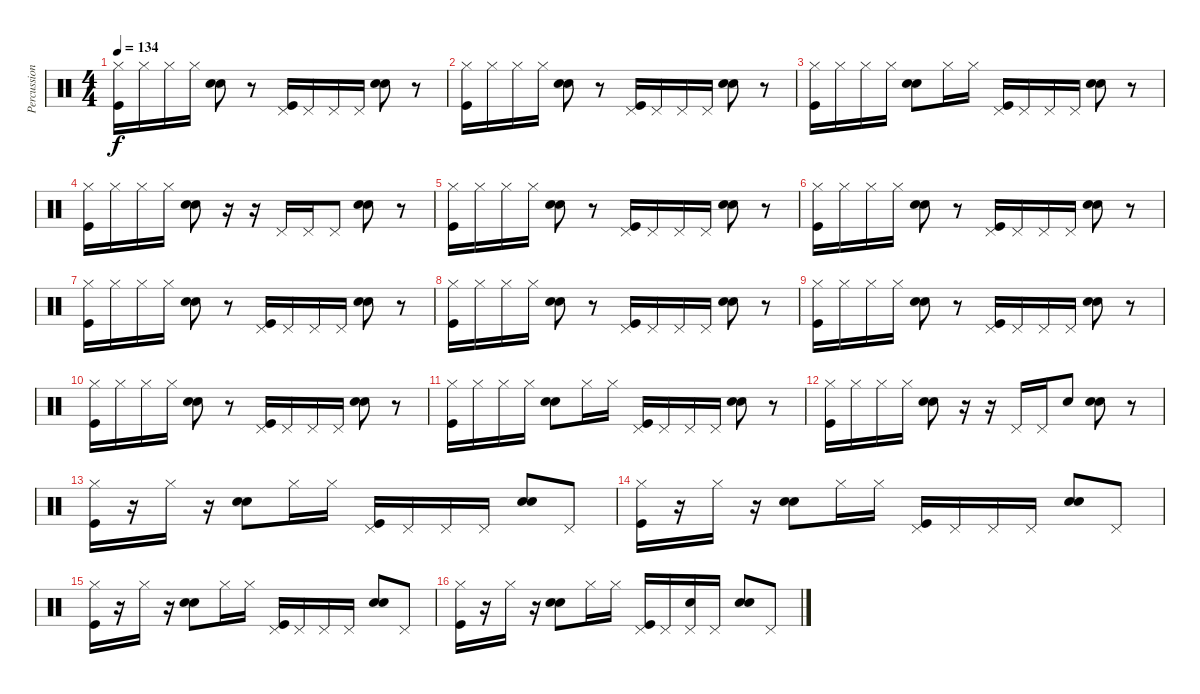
\track ("Percussion" "Percussion") {instrument percussion}
\staff {score}
\articulation defaults
\ts (4 4)
\tempo 134
\clef neutral
\ks c
("Hi-Hat (closed)" "Kick (hit)").16{dy f} "Hi-Hat (closed)".16 "Hi-Hat (closed)".16 "Hi-Hat (closed)".16 ("Hand Clap (hit)" "Electric Snare (hit)").8 r.8 ("Pedal Hi-Hat (hit)" "Kick (hit)").16 "Pedal Hi-Hat (hit)".16 "Pedal Hi-Hat (hit)".16 "Pedal Hi-Hat (hit)".16 ("Hand Clap (hit)" "Electric Snare (hit)").8 r.8 |
("Hi-Hat (closed)" "Kick (hit)").16 "Hi-Hat (closed)".16 "Hi-Hat (closed)".16 "Hi-Hat (closed)".16 ("Hand Clap (hit)" "Electric Snare (hit)").8 r.8 ("Pedal Hi-Hat (hit)" "Kick (hit)").16 "Pedal Hi-Hat (hit)".16 "Pedal Hi-Hat (hit)".16 "Pedal Hi-Hat (hit)".16 ("Hand Clap (hit)" "Electric Snare (hit)").8 r.8 |
("Hi-Hat (closed)" "Kick (hit)").16 "Hi-Hat (closed)".16 "Hi-Hat (closed)".16 "Hi-Hat (closed)".16 ("Hand Clap (hit)" "Electric Snare (hit)").8 "Hi-Hat (closed)".16 "Hi-Hat (closed)".16 ("Pedal Hi-Hat (hit)" "Kick (hit)").16 "Pedal Hi-Hat (hit)".16 "Pedal Hi-Hat (hit)".16 "Pedal Hi-Hat (hit)".16 ("Hand Clap (hit)" "Electric Snare (hit)").8 r.8 |
("Hi-Hat (closed)" "Kick (hit)").16 "Hi-Hat (closed)".16 "Hi-Hat (closed)".16 "Hi-Hat (closed)".16 ("Hand Clap (hit)" "Electric Snare (hit)").8 r.16 r.16 "Pedal Hi-Hat (hit)".16 "Pedal Hi-Hat (hit)".16 "Pedal Hi-Hat (hit)".8 ("Hand Clap (hit)" "Electric Snare (hit)").8 r.8 |
("Hi-Hat (closed)" "Kick (hit)").16 "Hi-Hat (closed)".16 "Hi-Hat (closed)".16 "Hi-Hat (closed)".16 ("Hand Clap (hit)" "Electric Snare (hit)").8 r.8 ("Pedal Hi-Hat (hit)" "Kick (hit)").16 "Pedal Hi-Hat (hit)".16 "Pedal Hi-Hat (hit)".16 "Pedal Hi-Hat (hit)".16 ("Hand Clap (hit)" "Electric Snare (hit)").8 r.8 |
("Hi-Hat (closed)" "Kick (hit)").16 "Hi-Hat (closed)".16 "Hi-Hat (closed)".16 "Hi-Hat (closed)".16 ("Hand Clap (hit)" "Electric Snare (hit)").8 r.8 ("Pedal Hi-Hat (hit)" "Kick (hit)").16 "Pedal Hi-Hat (hit)".16 "Pedal Hi-Hat (hit)".16 "Pedal Hi-Hat (hit)".16 ("Hand Clap (hit)" "Electric Snare (hit)").8 r.8 |
("Hi-Hat (closed)" "Kick (hit)").16 "Hi-Hat (closed)".16 "Hi-Hat (closed)".16 "Hi-Hat (closed)".16 ("Hand Clap (hit)" "Electric Snare (hit)").8 r.8 ("Pedal Hi-Hat (hit)" "Kick (hit)").16 "Pedal Hi-Hat (hit)".16 "Pedal Hi-Hat (hit)".16 "Pedal Hi-Hat (hit)".16 ("Hand Clap (hit)" "Electric Snare (hit)").8 r.8 |
("Hi-Hat (closed)" "Kick (hit)").16 "Hi-Hat (closed)".16 "Hi-Hat (closed)".16 "Hi-Hat (closed)".16 ("Hand Clap (hit)" "Electric Snare (hit)").8 r.8 ("Pedal Hi-Hat (hit)" "Kick (hit)").16 "Pedal Hi-Hat (hit)".16 "Pedal Hi-Hat (hit)".16 "Pedal Hi-Hat (hit)".16 ("Hand Clap (hit)" "Electric Snare (hit)").8 r.8 |
("Hi-Hat (closed)" "Kick (hit)").16 "Hi-Hat (closed)".16 "Hi-Hat (closed)".16 "Hi-Hat (closed)".16 ("Hand Clap (hit)" "Electric Snare (hit)").8 r.8 ("Pedal Hi-Hat (hit)" "Kick (hit)").16 "Pedal Hi-Hat (hit)".16 "Pedal Hi-Hat (hit)".16 "Pedal Hi-Hat (hit)".16 ("Hand Clap (hit)" "Electric Snare (hit)").8 r.8 |
("Hi-Hat (closed)" "Kick (hit)").16 "Hi-Hat (closed)".16 "Hi-Hat (closed)".16 "Hi-Hat (closed)".16 ("Hand Clap (hit)" "Electric Snare (hit)").8 r.8 ("Pedal Hi-Hat (hit)" "Kick (hit)").16 "Pedal Hi-Hat (hit)".16 "Pedal Hi-Hat (hit)".16 "Pedal Hi-Hat (hit)".16 ("Hand Clap (hit)" "Electric Snare (hit)").8 r.8 |
("Hi-Hat (closed)" "Kick (hit)").16 "Hi-Hat (closed)".16 "Hi-Hat (closed)".16 "Hi-Hat (closed)".16 ("Hand Clap (hit)" "Electric Snare (hit)").8 "Hi-Hat (closed)".16 "Hi-Hat (closed)".16 ("Pedal Hi-Hat (hit)" "Kick (hit)").16 "Pedal Hi-Hat (hit)".16 "Pedal Hi-Hat (hit)".16 "Pedal Hi-Hat (hit)".16 ("Hand Clap (hit)" "Electric Snare (hit)").8 r.8 |
("Hi-Hat (closed)" "Kick (hit)").16 "Hi-Hat (closed)".16 "Hi-Hat (closed)".16 "Hi-Hat (closed)".16 ("Hand Clap (hit)" "Electric Snare (hit)").8 r.16 r.16 "Pedal Hi-Hat (hit)".16 "Pedal Hi-Hat (hit)".16 "Hand Clap (hit)".8 ("Hand Clap (hit)" "Electric Snare (hit)").8 r.8 |
("Hi-Hat (closed)" "Kick (hit)").16 r.16 "Hi-Hat (closed)".16 r.16 ("Hand Clap (hit)" "Electric Snare (hit)").8 "Hi-Hat (closed)".16 "Hi-Hat (closed)".16 ("Pedal Hi-Hat (hit)" "Kick (hit)").16 "Pedal Hi-Hat (hit)".16 "Pedal Hi-Hat (hit)".16 "Pedal Hi-Hat (hit)".16 ("Hand Clap (hit)" "Electric Snare (hit)").8 "Pedal Hi-Hat (hit)".8 |
("Hi-Hat (closed)" "Kick (hit)").16 r.16 "Hi-Hat (closed)".16 r.16 ("Hand Clap (hit)" "Electric Snare (hit)").8 "Hi-Hat (closed)".16 "Hi-Hat (closed)".16 ("Pedal Hi-Hat (hit)" "Kick (hit)").16 "Pedal Hi-Hat (hit)".16 "Pedal Hi-Hat (hit)".16 "Pedal Hi-Hat (hit)".16 ("Hand Clap (hit)" "Electric Snare (hit)").8 "Pedal Hi-Hat (hit)".8 |
("Hi-Hat (closed)" "Kick (hit)").16 r.16 "Hi-Hat (closed)".16 r.16 ("Hand Clap (hit)" "Electric Snare (hit)").8 "Hi-Hat (closed)".16 "Hi-Hat (closed)".16 ("Pedal Hi-Hat (hit)" "Kick (hit)").16 "Pedal Hi-Hat (hit)".16 "Pedal Hi-Hat (hit)".16 "Pedal Hi-Hat (hit)".16 ("Hand Clap (hit)" "Electric Snare (hit)").8 "Pedal Hi-Hat (hit)".8 |
("Hi-Hat (closed)" "Kick (hit)").16 r.16 "Hi-Hat (closed)".16 r.16 ("Hand Clap (hit)" "Electric Snare (hit)").8 "Hi-Hat (closed)".16 "Hi-Hat (closed)".16 ("Pedal Hi-Hat (hit)" "Kick (hit)").16 "Pedal Hi-Hat (hit)".16 ("Pedal Hi-Hat (hit)" "Hand Clap (hit)").16 "Pedal Hi-Hat (hit)".16 ("Hand Clap (hit)" "Electric Snare (hit)").8 "Pedal Hi-Hat (hit)".8
